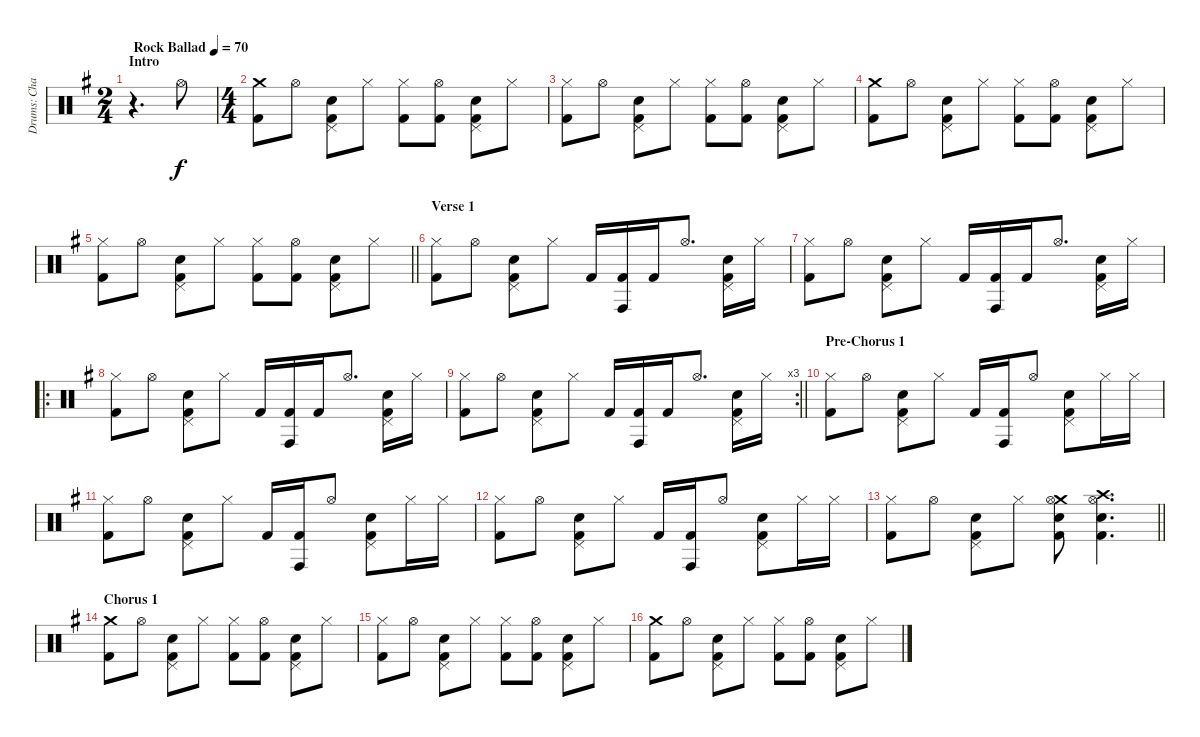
\track ("Drums: Charlie Allen Martin" "Drums: Cha") {instrument percussion}
\staff {score}
\articulation defaults
\ts (2 4)
\section ("" "Intro")
\tempo (70 "Rock Ballad")
\clef neutral
\ks g
r.4{d dy f} "Hi-Hat (open)".8 |
\ts (4 4)
("Crash medium (hit)" "Kick (hit) 2").8 "Hi-Hat (open)".8 ("Pedal Hi-Hat (hit)" "Snare (hit) 2" "Kick (hit) 2").8 "Hi-Hat (closed)".8 ("Hi-Hat (closed)" "Kick (hit) 2").8 ("Hi-Hat (open)" "Kick (hit) 2").8 ("Pedal Hi-Hat (hit)" "Snare (hit) 2" "Kick (hit) 2").8 "Hi-Hat (closed)".8 |
("Hi-Hat (closed)" "Kick (hit) 2").8 "Hi-Hat (open)".8 ("Pedal Hi-Hat (hit)" "Snare (hit) 2" "Kick (hit) 2").8 "Hi-Hat (closed)".8 ("Hi-Hat (closed)" "Kick (hit) 2").8 ("Hi-Hat (open)" "Kick (hit) 2").8 ("Pedal Hi-Hat (hit)" "Snare (hit) 2" "Kick (hit) 2").8 "Hi-Hat (closed)".8 |
("Crash medium (hit)" "Kick (hit) 2").8 "Hi-Hat (open)".8 ("Pedal Hi-Hat (hit)" "Snare (hit) 2" "Kick (hit) 2").8 "Hi-Hat (closed)".8 ("Hi-Hat (closed)" "Kick (hit) 2").8 ("Hi-Hat (open)" "Kick (hit) 2").8 ("Pedal Hi-Hat (hit)" "Snare (hit) 2" "Kick (hit) 2").8 "Hi-Hat (closed)".8 |
\barLineRight lightlight
("Hi-Hat (closed)" "Kick (hit) 2").8 "Hi-Hat (open)".8 ("Pedal Hi-Hat (hit)" "Snare (hit) 2" "Kick (hit) 2").8 "Hi-Hat (closed)".8 ("Hi-Hat (closed)" "Kick (hit) 2").8 ("Hi-Hat (open)" "Kick (hit) 2").8 ("Pedal Hi-Hat (hit)" "Snare (hit) 2" "Kick (hit) 2").8 "Hi-Hat (closed)".8 |
\section ("" "Verse 1")
("Hi-Hat (closed)" "Kick (hit) 2").8 "Hi-Hat (open)".8 ("Pedal Hi-Hat (hit)" "Snare (hit) 2" "Kick (hit) 2").8 "Hi-Hat (closed)".8 "Kick (hit) 2".16 ("Conga high (hit)" "Kick (hit) 2").16 "Kick (hit) 2".16 "Hi-Hat (open)".8{d} ("Pedal Hi-Hat (hit)" "Snare (hit) 2" "Kick (hit) 2").16 "Hi-Hat (closed)".16 |
("Hi-Hat (closed)" "Kick (hit) 2").8 "Hi-Hat (open)".8 ("Pedal Hi-Hat (hit)" "Snare (hit) 2" "Kick (hit) 2").8 "Hi-Hat (closed)".8 "Kick (hit) 2".16 ("Conga high (hit)" "Kick (hit) 2").16 "Kick (hit) 2".16 "Hi-Hat (open)".8{d} ("Pedal Hi-Hat (hit)" "Snare (hit) 2" "Kick (hit) 2").16 "Hi-Hat (closed)".16 |
\ro
("Hi-Hat (closed)" "Kick (hit) 2").8 "Hi-Hat (open)".8 ("Pedal Hi-Hat (hit)" "Snare (hit) 2" "Kick (hit) 2").8 "Hi-Hat (closed)".8 "Kick (hit) 2".16 ("Conga high (hit)" "Kick (hit) 2").16 "Kick (hit) 2".16 "Hi-Hat (open)".8{d} ("Pedal Hi-Hat (hit)" "Snare (hit) 2" "Kick (hit) 2").16 "Hi-Hat (closed)".16 |
\rc 3
\barLineRight lightlight
("Hi-Hat (closed)" "Kick (hit) 2").8 "Hi-Hat (open)".8 ("Pedal Hi-Hat (hit)" "Snare (hit) 2" "Kick (hit) 2").8 "Hi-Hat (closed)".8 "Kick (hit) 2".16 ("Conga high (hit)" "Kick (hit) 2").16 "Kick (hit) 2".16 "Hi-Hat (open)".8{d} ("Pedal Hi-Hat (hit)" "Snare (hit) 2" "Kick (hit) 2").16 "Hi-Hat (closed)".16 |
\section ("" "Pre-Chorus 1")
("Hi-Hat (closed)" "Kick (hit) 2").8 "Hi-Hat (open)".8 ("Pedal Hi-Hat (hit)" "Snare (hit) 2" "Kick (hit) 2").8 "Hi-Hat (closed)".8 "Kick (hit) 2".16 ("Conga high (hit)" "Kick (hit) 2").16 "Hi-Hat (open)".8 ("Pedal Hi-Hat (hit)" "Snare (hit) 2" "Kick (hit) 2").8 "Hi-Hat (closed)".16 "Hi-Hat (closed)".16 |
("Hi-Hat (closed)" "Kick (hit) 2").8 "Hi-Hat (open)".8 ("Pedal Hi-Hat (hit)" "Snare (hit) 2" "Kick (hit) 2").8 "Hi-Hat (closed)".8 "Kick (hit) 2".16 ("Conga high (hit)" "Kick (hit) 2").16 "Hi-Hat (open)".8 ("Pedal Hi-Hat (hit)" "Snare (hit) 2" "Kick (hit) 2").8 "Hi-Hat (closed)".16 "Hi-Hat (closed)".16 |
("Hi-Hat (closed)" "Kick (hit) 2").8 "Hi-Hat (open)".8 ("Pedal Hi-Hat (hit)" "Snare (hit) 2" "Kick (hit) 2").8 "Hi-Hat (closed)".8 "Kick (hit) 2".16 ("Conga high (hit)" "Kick (hit) 2").16 "Hi-Hat (open)".8 ("Pedal Hi-Hat (hit)" "Snare (hit) 2" "Kick (hit) 2").8 "Hi-Hat (closed)".16 "Hi-Hat (closed)".16 |
\barLineRight lightlight
("Hi-Hat (closed)" "Kick (hit) 2").8 "Hi-Hat (open)".8 ("Pedal Hi-Hat (hit)" "Snare (hit) 2" "Kick (hit) 2").8 "Hi-Hat (closed)".8 ("Crash medium (hit)" "Hi-Hat (open)" "Snare (hit) 2" "Kick (hit) 2").8 ("Crash high (hit)" "Hi-Hat (open)" "Snare (hit) 2" "Kick (hit) 2").4{d} |
\section ("" "Chorus 1")
("Crash medium (hit)" "Kick (hit) 2").8 "Hi-Hat (open)".8 ("Pedal Hi-Hat (hit)" "Snare (hit) 2" "Kick (hit) 2").8 "Hi-Hat (closed)".8 ("Hi-Hat (closed)" "Kick (hit) 2").8 ("Hi-Hat (open)" "Kick (hit) 2").8 ("Pedal Hi-Hat (hit)" "Snare (hit) 2" "Kick (hit) 2").8 "Hi-Hat (closed)".8 |
("Hi-Hat (closed)" "Kick (hit) 2").8 "Hi-Hat (open)".8 ("Pedal Hi-Hat (hit)" "Snare (hit) 2" "Kick (hit) 2").8 "Hi-Hat (closed)".8 ("Hi-Hat (closed)" "Kick (hit) 2").8 ("Hi-Hat (open)" "Kick (hit) 2").8 ("Pedal Hi-Hat (hit)" "Snare (hit) 2" "Kick (hit) 2").8 "Hi-Hat (closed)".8 |
("Crash medium (hit)" "Kick (hit) 2").8 "Hi-Hat (open)".8 ("Pedal Hi-Hat (hit)" "Snare (hit) 2" "Kick (hit) 2").8 "Hi-Hat (closed)".8 ("Hi-Hat (closed)" "Kick (hit) 2").8 ("Hi-Hat (open)" "Kick (hit) 2").8 ("Pedal Hi-Hat (hit)" "Snare (hit) 2" "Kick (hit) 2").8 "Hi-Hat (closed)".8
